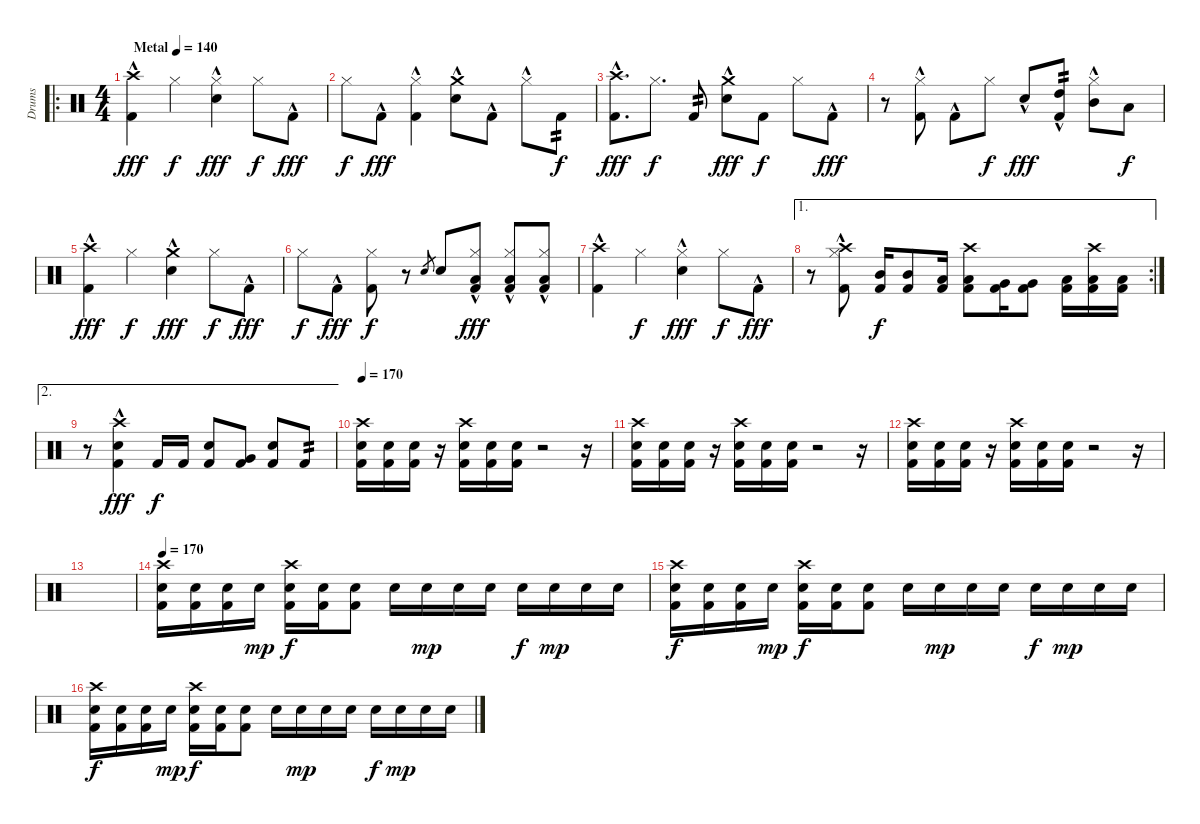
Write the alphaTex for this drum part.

\track ("Drums" "Drums") {instrument percussion}
\staff {score}
\articulation defaults
\ro
\ts (4 4)
\tempo (140 "Metal")
\clef neutral
\ks c
("Crash high (hit)"{hac} "Kick (hit) 2"{hac}).4{dy fff} "Hi-Hat (closed)".4{dy f} ("Hi-Hat (closed)"{hac} "Electric Snare (hit)"{hac}).4{dy fff} "Hi-Hat (closed)".8{dy f} "Kick (hit) 2"{hac}.8{dy fff} |
"Hi-Hat (closed)".8{dy f} "Kick (hit) 2"{hac}.8{dy fff} ("Hi-Hat (closed)" "Kick (hit) 2"{hac}).4 ("Crash medium (hit)"{hac} "Electric Snare (hit)"{hac}).8 "Kick (hit) 2"{hac}.8 "Hi-Hat (closed)"{hac}.8 "Kick (hit) 2".8{tp 2 dy f} |
("Crash high (hit)"{hac} "Kick (hit) 2"{hac}).8{d dy fff} "Hi-Hat (closed)".8{d dy f} "Kick (hit) 2".8{tp 2} ("Crash medium (hit)"{hac} "Electric Snare (hit)"{hac}).8{dy fff} "Kick (hit) 2".8{dy f} "Hi-Hat (closed)".8 "Kick (hit) 2"{hac}.8{dy fff} |
r.8 ("Hi-Hat (closed)" "Kick (hit) 2"{hac}).8 "Kick (hit) 2"{hac}.8 "Hi-Hat (closed)".8{dy f} "Electric Snare (hit)"{hac}.8{dy fff} ("High Tom (hit)" "Kick (hit) 2"{hac}).8{tp 2} ("Hi-Hat (closed)"{hac} "Mid Tom (hit)").8 "Low Tom (hit)".8{dy f} |
("Crash high (hit)"{hac} "Kick (hit) 2"{hac}).4{dy fff} "Hi-Hat (closed)".4{dy f} ("Crash medium (hit)"{hac} "Electric Snare (hit)"{hac}).4{dy fff} "Hi-Hat (closed)".8{dy f} "Kick (hit) 2"{hac}.8{dy fff} |
"Hi-Hat (closed)".8{dy f} "Kick (hit) 2"{hac}.8{dy fff} ("Hi-Hat (closed)" "Kick (hit) 2").8{dy f} r.8 "Electric Snare (hit)".8{gr} "Electric Snare (hit)".8 ("Low Floor Tom (hit)" "Hi-Hat (closed)"{hac} "Kick (hit) 2").8{dy fff} ("Low Floor Tom (hit)"{hac} "Hi-Hat (closed)"{hac} "Kick (hit) 2"{hac}).8 ("Low Floor Tom (hit)" "Hi-Hat (closed)"{hac} "Kick (hit) 2"{hac}).8 |
("Crash high (hit)"{hac} "Kick (hit) 2"{hac}).4 "Hi-Hat (closed)".4{dy f} ("Hi-Hat (closed)"{hac} "Electric Snare (hit)"{hac}).4{dy fff} "Hi-Hat (closed)".8{dy f} "Kick (hit) 2"{hac}.8{dy fff} |
\ae 1
\rc 2
r.8 ("Crash high (hit)" "Hi-Hat (closed)"{hac} "Kick (hit) 2"{hac}).8 ("Mid Tom (hit)" "Kick (hit) 2").16{dy f} ("Mid Tom (hit)" "Kick (hit) 2").8 ("Low Tom (hit)" "Kick (hit) 2").16 ("Crash high (hit)" "Low Tom (hit)" "Kick (hit) 2").8 ("Very Low Tom (hit)" "Kick (hit) 2").16 ("Very Low Tom (hit)" "Kick (hit) 2").8 ("Low Floor Tom (hit)" "Kick (hit) 2").16 ("Crash high (hit)" "Low Floor Tom (hit)" "Kick (hit) 2").16 ("Low Floor Tom (hit)" "Kick (hit) 2").16 |
\ae 2
r.8 ("Crash high (hit)" "Electric Snare (hit)"{hac} "Kick (hit) 2"{hac}).4{dy fff} "Kick (hit) 2".16{dy f} "Kick (hit) 2".16 ("Electric Snare (hit)" "Kick (hit) 2").8 ("Very Low Tom (hit)" "Kick (hit) 2").8 ("Electric Snare (hit)" "Kick (hit) 2").8 "Kick (hit) 2".8{tp 2} |
\tempo 170
("Crash high (hit)" "Electric Snare (hit)" "Kick (hit) 2").16 ("Electric Snare (hit)" "Kick (hit) 2").16 ("Electric Snare (hit)" "Kick (hit) 2").16 r.16 ("Crash high (hit)" "Electric Snare (hit)" "Kick (hit) 2").16 ("Electric Snare (hit)" "Kick (hit) 2").16 ("Electric Snare (hit)" "Kick (hit) 2").16 r.2 r.16 |
("Crash high (hit)" "Electric Snare (hit)" "Kick (hit) 2").16 ("Electric Snare (hit)" "Kick (hit) 2").16 ("Electric Snare (hit)" "Kick (hit) 2").16 r.16 ("Crash high (hit)" "Electric Snare (hit)" "Kick (hit) 2").16 ("Electric Snare (hit)" "Kick (hit) 2").16 ("Electric Snare (hit)" "Kick (hit) 2").16 r.2 r.16 |
("Crash high (hit)" "Electric Snare (hit)" "Kick (hit) 2").16 ("Electric Snare (hit)" "Kick (hit) 2").16 ("Electric Snare (hit)" "Kick (hit) 2").16 r.16 ("Crash high (hit)" "Electric Snare (hit)" "Kick (hit) 2").16 ("Electric Snare (hit)" "Kick (hit) 2").16 ("Electric Snare (hit)" "Kick (hit) 2").16 r.2 r.16 |
|
\tempo 170
("Crash high (hit)" "Electric Snare (hit)" "Kick (hit) 2").16 ("Electric Snare (hit)" "Kick (hit) 2").16 ("Electric Snare (hit)" "Kick (hit) 2").16 "Electric Snare (hit)".16{dy mp} ("Crash high (hit)" "Electric Snare (hit)" "Kick (hit) 2").16{dy f} ("Electric Snare (hit)" "Kick (hit) 2").16 ("Electric Snare (hit)" "Kick (hit) 2").8 "Electric Snare (hit)".16 "Electric Snare (hit)".16{dy mp} "Electric Snare (hit)".16 "Electric Snare (hit)".16 "Electric Snare (hit)".16{dy f} "Electric Snare (hit)".16{dy mp} "Electric Snare (hit)".16 "Electric Snare (hit)".16 |
("Crash high (hit)" "Electric Snare (hit)" "Kick (hit) 2").16{dy f} ("Electric Snare (hit)" "Kick (hit) 2").16 ("Electric Snare (hit)" "Kick (hit) 2").16 "Electric Snare (hit)".16{dy mp} ("Crash high (hit)" "Electric Snare (hit)" "Kick (hit) 2").16{dy f} ("Electric Snare (hit)" "Kick (hit) 2").16 ("Electric Snare (hit)" "Kick (hit) 2").8 "Electric Snare (hit)".16 "Electric Snare (hit)".16{dy mp} "Electric Snare (hit)".16 "Electric Snare (hit)".16 "Electric Snare (hit)".16{dy f} "Electric Snare (hit)".16{dy mp} "Electric Snare (hit)".16 "Electric Snare (hit)".16 |
("Crash high (hit)" "Electric Snare (hit)" "Kick (hit) 2").16{dy f} ("Electric Snare (hit)" "Kick (hit) 2").16 ("Electric Snare (hit)" "Kick (hit) 2").16 "Electric Snare (hit)".16{dy mp} ("Crash high (hit)" "Electric Snare (hit)" "Kick (hit) 2").16{dy f} ("Electric Snare (hit)" "Kick (hit) 2").16 ("Electric Snare (hit)" "Kick (hit) 2").8 "Electric Snare (hit)".16 "Electric Snare (hit)".16{dy mp} "Electric Snare (hit)".16 "Electric Snare (hit)".16 "Electric Snare (hit)".16{dy f} "Electric Snare (hit)".16{dy mp} "Electric Snare (hit)".16 "Electric Snare (hit)".16
